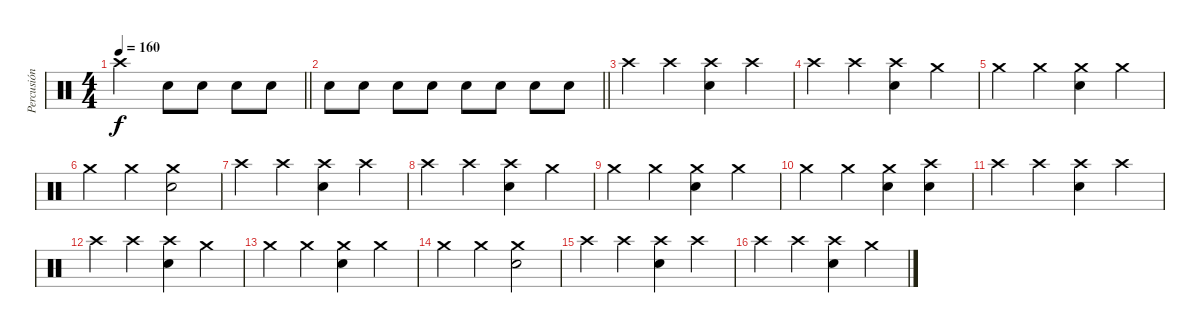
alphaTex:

\track ("Percusión" "Percusión") {instrument percussion}
\staff {score}
\articulation defaults
\ts (4 4)
\tempo 160
\clef neutral
\barLineRight lightlight
\ks c "Crash high (hit)".2{dy f} "Electric Snare (hit)".8 "Electric Snare (hit)".8 "Electric Snare (hit)".8 "Electric Snare (hit)".8
|
\barLineRight lightlight "Electric Snare (hit)".8 "Electric Snare (hit)".8 "Electric Snare (hit)".8 "Electric Snare (hit)".8 "Electric Snare (hit)".8 "Electric Snare (hit)".8 "Electric Snare (hit)".8 "Electric Snare (hit)".8
|
"Crash high (hit)".4 "Crash high (hit)".4 ("Crash high (hit)" "Electric Snare (hit)").4 "Crash high (hit)".4 |
"Crash high (hit)".4 "Crash high (hit)".4 ("Electric Snare (hit)" "Crash high (hit)").4 "Crash medium (hit)".4 |
"Crash medium (hit)".4 "Crash medium (hit)".4 ("Crash medium (hit)" "Electric Snare (hit)").4 "Crash medium (hit)".4 |
"Crash medium (hit)".4 "Crash medium (hit)".4 ("Crash medium (hit)" "Electric Snare (hit)").2 |
"Crash high (hit)".4 "Crash high (hit)".4 ("Crash high (hit)" "Electric Snare (hit)").4 "Crash high (hit)".4 |
"Crash high (hit)".4 "Crash high (hit)".4 ("Electric Snare (hit)" "Crash high (hit)").4 "Crash medium (hit)".4 |
"Crash medium (hit)".4 "Crash medium (hit)".4 ("Crash medium (hit)" "Electric Snare (hit)").4 "Crash medium (hit)".4 |
"Crash medium (hit)".4 "Crash medium (hit)".4 ("Crash medium (hit)" "Electric Snare (hit)").4 ("Crash high (hit)" "Electric Snare (hit)").4 |
"Crash high (hit)".4 "Crash high (hit)".4 ("Crash high (hit)" "Electric Snare (hit)").4 "Crash high (hit)".4 |
"Crash high (hit)".4 "Crash high (hit)".4 ("Electric Snare (hit)" "Crash high (hit)").4 "Crash medium (hit)".4 |
"Crash medium (hit)".4 "Crash medium (hit)".4 ("Crash medium (hit)" "Electric Snare (hit)").4 "Crash medium (hit)".4 |
"Crash medium (hit)".4 "Crash medium (hit)".4 ("Crash medium (hit)" "Electric Snare (hit)").2 |
"Crash high (hit)".4 "Crash high (hit)".4 ("Crash high (hit)" "Electric Snare (hit)").4 "Crash high (hit)".4 |
"Crash high (hit)".4 "Crash high (hit)".4 ("Electric Snare (hit)" "Crash high (hit)").4 "Crash medium (hit)".4
